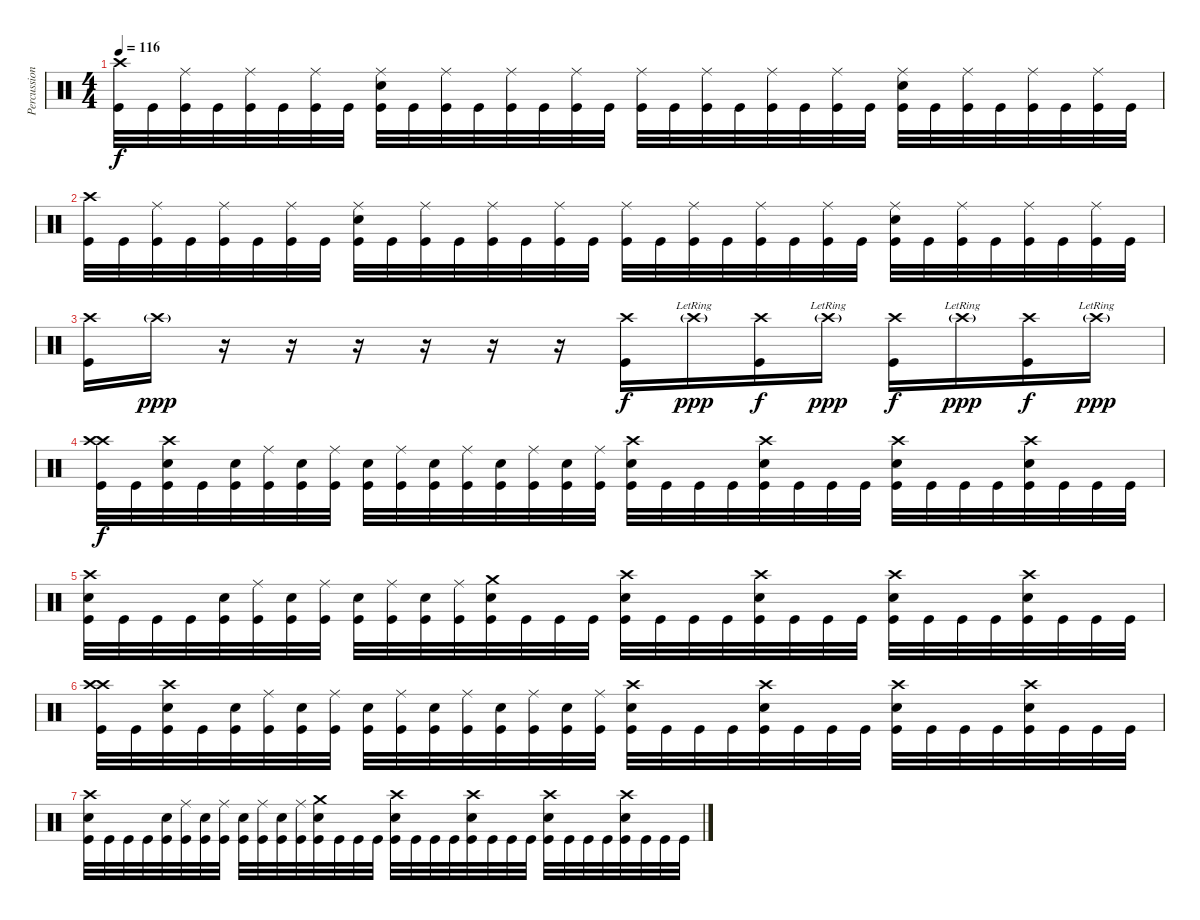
\track ("Percussion" "Percussion") {instrument percussion}
\staff {score}
\articulation defaults
\ts (4 4)
\tempo 116
\clef neutral
\ks c
("Crash high (hit)" "Kick (hit)").32{dy f} "Kick (hit)".32 ("Ride (middle)" "Kick (hit)").32 "Kick (hit)".32 ("Ride (middle)" "Kick (hit)").32 "Kick (hit)".32 ("Ride (middle)" "Kick (hit)").32 "Kick (hit)".32 ("Ride (middle)" "Electric Snare (hit)" "Kick (hit)").32 "Kick (hit)".32 ("Ride (middle)" "Kick (hit)").32 "Kick (hit)".32 ("Ride (middle)" "Kick (hit)").32 "Kick (hit)".32 ("Ride (middle)" "Kick (hit)").32 "Kick (hit)".32 ("Ride (middle)" "Kick (hit)").32 "Kick (hit)".32 ("Ride (middle)" "Kick (hit)").32 "Kick (hit)".32 ("Ride (middle)" "Kick (hit)").32 "Kick (hit)".32 ("Ride (middle)" "Kick (hit)").32 "Kick (hit)".32 ("Ride (middle)" "Electric Snare (hit)" "Kick (hit)").32 "Kick (hit)".32 ("Ride (middle)" "Kick (hit)").32 "Kick (hit)".32 ("Ride (middle)" "Kick (hit)").32 "Kick (hit)".32 ("Ride (middle)" "Kick (hit)").32 "Kick (hit)".32 |
("Crash high (hit)" "Kick (hit)").32 "Kick (hit)".32 ("Ride (middle)" "Kick (hit)").32 "Kick (hit)".32 ("Ride (middle)" "Kick (hit)").32 "Kick (hit)".32 ("Ride (middle)" "Kick (hit)").32 "Kick (hit)".32 ("Ride (middle)" "Electric Snare (hit)" "Kick (hit)").32 "Kick (hit)".32 ("Ride (middle)" "Kick (hit)").32 "Kick (hit)".32 ("Ride (middle)" "Kick (hit)").32 "Kick (hit)".32 ("Ride (middle)" "Kick (hit)").32 "Kick (hit)".32 ("Ride (middle)" "Kick (hit)").32 "Kick (hit)".32 ("Ride (middle)" "Kick (hit)").32 "Kick (hit)".32 ("Ride (middle)" "Kick (hit)").32 "Kick (hit)".32 ("Ride (middle)" "Kick (hit)").32 "Kick (hit)".32 ("Ride (middle)" "Electric Snare (hit)" "Kick (hit)").32 "Kick (hit)".32 ("Ride (middle)" "Kick (hit)").32 "Kick (hit)".32 ("Ride (middle)" "Kick (hit)").32 "Kick (hit)".32 ("Ride (middle)" "Kick (hit)").32 "Kick (hit)".32 |
("Crash high (hit)" "Kick (hit)").16 "Crash high (hit)"{g}.16{dy ppp} r.16 r.16 r.16 r.16 r.16 r.16 ("Crash high (hit)" "Kick (hit)").16{dy f} "Crash high (hit)"{g lr}.16{dy ppp} ("Crash high (hit)" "Kick (hit)").16{dy f} "Crash high (hit)"{g lr}.16{dy ppp} ("Crash high (hit)" "Kick (hit)").16{dy f} "Crash high (hit)"{g lr}.16{dy ppp} ("Crash high (hit)" "Kick (hit)").16{dy f} "Crash high (hit)"{g lr}.16{dy ppp} |
("Crash high (hit)" "Crash high (hit)" "Kick (hit)").32{dy f} "Kick (hit)".32 ("Crash high (hit)" "Electric Snare (hit)" "Kick (hit)").32 "Kick (hit)".32 ("Electric Snare (hit)" "Kick (hit)").32 ("Ride (middle)" "Kick (hit)").32 ("Electric Snare (hit)" "Kick (hit)").32 ("Ride (middle)" "Kick (hit)").32 ("Electric Snare (hit)" "Kick (hit)").32 ("Ride (middle)" "Kick (hit)").32 ("Electric Snare (hit)" "Kick (hit)").32 ("Ride (middle)" "Kick (hit)").32 ("Electric Snare (hit)" "Kick (hit)").32 ("Ride (middle)" "Kick (hit)").32 ("Electric Snare (hit)" "Kick (hit)").32 ("Ride (middle)" "Kick (hit)").32 ("Crash high (hit)" "Electric Snare (hit)" "Kick (hit)").32 "Kick (hit)".32 "Kick (hit)".32 "Kick (hit)".32 ("Crash high (hit)" "Electric Snare (hit)" "Kick (hit)").32 "Kick (hit)".32 "Kick (hit)".32 "Kick (hit)".32 ("Crash high (hit)" "Electric Snare (hit)" "Kick (hit)").32 "Kick (hit)".32 "Kick (hit)".32 "Kick (hit)".32 ("Crash high (hit)" "Electric Snare (hit)" "Kick (hit)").32 "Kick (hit)".32 "Kick (hit)".32 "Kick (hit)".32 |
("Crash high (hit)" "Electric Snare (hit)" "Kick (hit)").32 "Kick (hit)".32 "Kick (hit)".32 "Kick (hit)".32 ("Electric Snare (hit)" "Kick (hit)").32 ("Ride (middle)" "Kick (hit)").32 ("Electric Snare (hit)" "Kick (hit)").32 ("Ride (middle)" "Kick (hit)").32 ("Electric Snare (hit)" "Kick (hit)").32 ("Ride (middle)" "Kick (hit)").32 ("Electric Snare (hit)" "Kick (hit)").32 ("Ride (middle)" "Kick (hit)").32 ("Crash medium (hit)" "Electric Snare (hit)" "Kick (hit)").32 "Kick (hit)".32 "Kick (hit)".32 "Kick (hit)".32 ("Crash high (hit)" "Electric Snare (hit)" "Kick (hit)").32 "Kick (hit)".32 "Kick (hit)".32 "Kick (hit)".32 ("Crash high (hit)" "Electric Snare (hit)" "Kick (hit)").32 "Kick (hit)".32 "Kick (hit)".32 "Kick (hit)".32 ("Crash high (hit)" "Electric Snare (hit)" "Kick (hit)").32 "Kick (hit)".32 "Kick (hit)".32 "Kick (hit)".32 ("Crash high (hit)" "Electric Snare (hit)" "Kick (hit)").32 "Kick (hit)".32 "Kick (hit)".32 "Kick (hit)".32 |
("Crash high (hit)" "Crash high (hit)" "Kick (hit)").32 "Kick (hit)".32 ("Crash high (hit)" "Electric Snare (hit)" "Kick (hit)").32 "Kick (hit)".32 ("Electric Snare (hit)" "Kick (hit)").32 ("Ride (middle)" "Kick (hit)").32 ("Electric Snare (hit)" "Kick (hit)").32 ("Ride (middle)" "Kick (hit)").32 ("Electric Snare (hit)" "Kick (hit)").32 ("Ride (middle)" "Kick (hit)").32 ("Electric Snare (hit)" "Kick (hit)").32 ("Ride (middle)" "Kick (hit)").32 ("Electric Snare (hit)" "Kick (hit)").32 ("Ride (middle)" "Kick (hit)").32 ("Electric Snare (hit)" "Kick (hit)").32 ("Ride (middle)" "Kick (hit)").32 ("Crash high (hit)" "Electric Snare (hit)" "Kick (hit)").32 "Kick (hit)".32 "Kick (hit)".32 "Kick (hit)".32 ("Crash high (hit)" "Electric Snare (hit)" "Kick (hit)").32 "Kick (hit)".32 "Kick (hit)".32 "Kick (hit)".32 ("Crash high (hit)" "Electric Snare (hit)" "Kick (hit)").32 "Kick (hit)".32 "Kick (hit)".32 "Kick (hit)".32 ("Crash high (hit)" "Electric Snare (hit)" "Kick (hit)").32 "Kick (hit)".32 "Kick (hit)".32 "Kick (hit)".32 |
("Crash high (hit)" "Electric Snare (hit)" "Kick (hit)").32 "Kick (hit)".32 "Kick (hit)".32 "Kick (hit)".32 ("Electric Snare (hit)" "Kick (hit)").32 ("Ride (middle)" "Kick (hit)").32 ("Electric Snare (hit)" "Kick (hit)").32 ("Ride (middle)" "Kick (hit)").32 ("Electric Snare (hit)" "Kick (hit)").32 ("Ride (middle)" "Kick (hit)").32 ("Electric Snare (hit)" "Kick (hit)").32 ("Ride (middle)" "Kick (hit)").32 ("Crash medium (hit)" "Electric Snare (hit)" "Kick (hit)").32 "Kick (hit)".32 "Kick (hit)".32 "Kick (hit)".32 ("Crash high (hit)" "Electric Snare (hit)" "Kick (hit)").32 "Kick (hit)".32 "Kick (hit)".32 "Kick (hit)".32 ("Crash high (hit)" "Electric Snare (hit)" "Kick (hit)").32 "Kick (hit)".32 "Kick (hit)".32 "Kick (hit)".32 ("Crash high (hit)" "Electric Snare (hit)" "Kick (hit)").32 "Kick (hit)".32 "Kick (hit)".32 "Kick (hit)".32 ("Crash high (hit)" "Electric Snare (hit)" "Kick (hit)").32 "Kick (hit)".32 "Kick (hit)".32 "Kick (hit)".32
